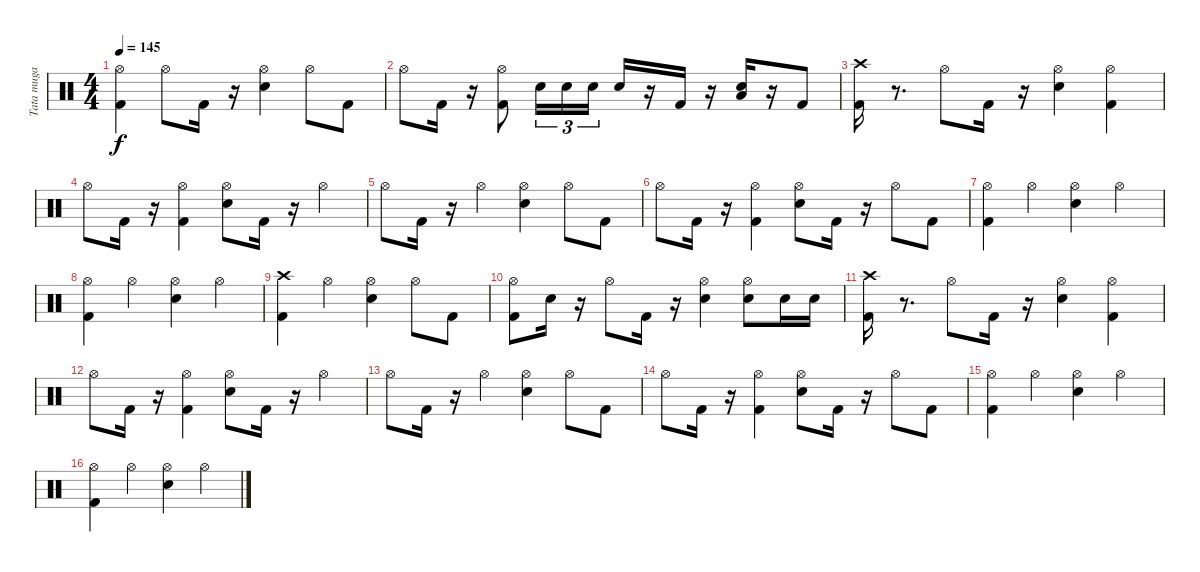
\track ("Tata muga" "Tata muga") {instrument percussion}
\staff {score}
\articulation defaults
\ts (4 4)
\tempo 145
\clef neutral
\ks c
("Hi-Hat (open)" "Kick (hit) 2").4{dy f} "Hi-Hat (open)".8 "Kick (hit) 2".16 r.16 ("Hi-Hat (open)" "Electric Snare (hit)").4 "Hi-Hat (open)".8 "Kick (hit) 2".8 |
"Hi-Hat (open)".8 "Kick (hit) 2".16 r.16 ("Hi-Hat (open)" "Kick (hit) 2").8 "Electric Snare (hit)".16{tu (3 2)} "Electric Snare (hit)".16{tu (3 2)} "Electric Snare (hit)".16{tu (3 2)} "Electric Snare (hit)".16 r.16 "Kick (hit) 2".16 r.16 ("Low Floor Tom (hit)" "Electric Snare (hit)").16 r.16 "Kick (hit) 2".8 |
("Crash high (hit)" "Kick (hit) 2").16 r.8{d} "Hi-Hat (open)".8 "Kick (hit) 2".16 r.16 ("Hi-Hat (open)" "Electric Snare (hit)").4 ("Kick (hit) 2" "Hi-Hat (open)").4 |
"Hi-Hat (open)".8 "Kick (hit) 2".16 r.16 ("Hi-Hat (open)" "Kick (hit) 2").4 ("Hi-Hat (open)" "Electric Snare (hit)").8 "Kick (hit) 2".16 r.16 "Hi-Hat (open)".4 |
"Hi-Hat (open)".8 "Kick (hit) 2".16 r.16 "Hi-Hat (open)".4 ("Hi-Hat (open)" "Electric Snare (hit)").4 "Hi-Hat (open)".8 "Kick (hit) 2".8 |
"Hi-Hat (open)".8 "Kick (hit) 2".16 r.16 ("Hi-Hat (open)" "Kick (hit) 2").4 ("Hi-Hat (open)" "Electric Snare (hit)").8 "Kick (hit) 2".16 r.16 "Hi-Hat (open)".8 "Kick (hit) 2".8 |
("Kick (hit) 2" "Hi-Hat (open)").4 "Hi-Hat (open)".4 ("Hi-Hat (open)" "Electric Snare (hit)").4 "Hi-Hat (open)".4 |
("Hi-Hat (open)" "Kick (hit) 2").4 "Hi-Hat (open)".4 ("Hi-Hat (open)" "Electric Snare (hit)").4 "Hi-Hat (open)".4 |
("Crash high (hit)" "Kick (hit) 2").4 "Hi-Hat (open)".4 ("Hi-Hat (open)" "Electric Snare (hit)").4 "Hi-Hat (open)".8 "Kick (hit) 2".8 |
("Hi-Hat (open)" "Kick (hit) 2").8 "Electric Snare (hit)".16 r.16 "Hi-Hat (open)".8 "Kick (hit) 2".16 r.16 ("Hi-Hat (open)" "Electric Snare (hit)").4 ("Hi-Hat (open)" "Electric Snare (hit)").8 "Electric Snare (hit)".16 "Electric Snare (hit)".16 |
("Crash high (hit)" "Kick (hit) 2").16 r.8{d} "Hi-Hat (open)".8 "Kick (hit) 2".16 r.16 ("Hi-Hat (open)" "Electric Snare (hit)").4 ("Kick (hit) 2" "Hi-Hat (open)").4 |
"Hi-Hat (open)".8 "Kick (hit) 2".16 r.16 ("Hi-Hat (open)" "Kick (hit) 2").4 ("Hi-Hat (open)" "Electric Snare (hit)").8 "Kick (hit) 2".16 r.16 "Hi-Hat (open)".4 |
"Hi-Hat (open)".8 "Kick (hit) 2".16 r.16 "Hi-Hat (open)".4 ("Hi-Hat (open)" "Electric Snare (hit)").4 "Hi-Hat (open)".8 "Kick (hit) 2".8 |
"Hi-Hat (open)".8 "Kick (hit) 2".16 r.16 ("Hi-Hat (open)" "Kick (hit) 2").4 ("Hi-Hat (open)" "Electric Snare (hit)").8 "Kick (hit) 2".16 r.16 "Hi-Hat (open)".8 "Kick (hit) 2".8 |
("Kick (hit) 2" "Hi-Hat (open)").4 "Hi-Hat (open)".4 ("Hi-Hat (open)" "Electric Snare (hit)").4 "Hi-Hat (open)".4 |
("Hi-Hat (open)" "Kick (hit) 2").4 "Hi-Hat (open)".4 ("Hi-Hat (open)" "Electric Snare (hit)").4 "Hi-Hat (open)".4
